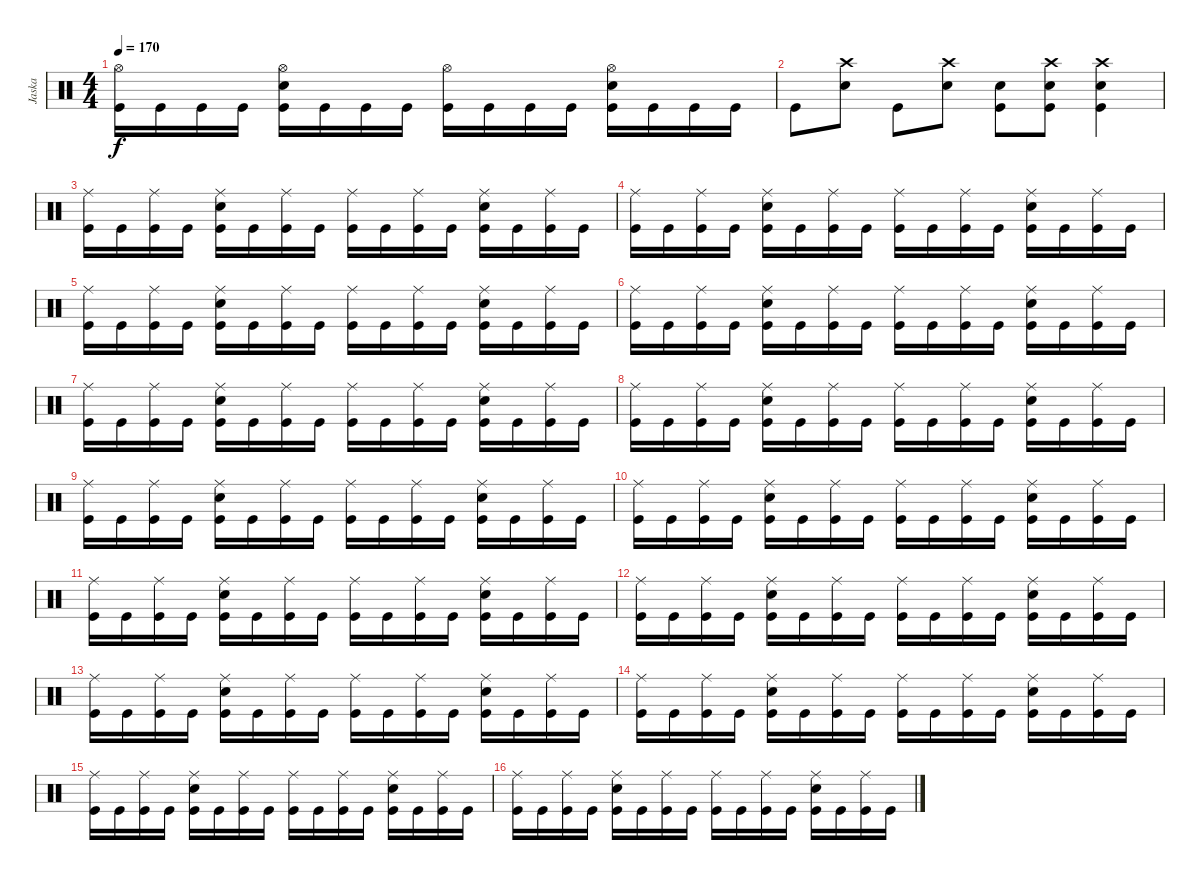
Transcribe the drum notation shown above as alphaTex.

\track ("Jaska" "Jaska") {instrument percussion}
\staff {score}
\articulation defaults
\ts (4 4)
\tempo 170
\clef neutral
\ks c
("Hi-Hat (open)" "Kick (hit)").16{dy f} "Kick (hit)".16 "Kick (hit)".16 "Kick (hit)".16 ("Hi-Hat (open)" "Snare (hit) 2" "Kick (hit)").16 "Kick (hit)".16 "Kick (hit)".16 "Kick (hit)".16 ("Hi-Hat (open)" "Kick (hit)").16 "Kick (hit)".16 "Kick (hit)".16 "Kick (hit)".16 ("Hi-Hat (open)" "Snare (hit) 2" "Kick (hit)").16 "Kick (hit)".16 "Kick (hit)".16 "Kick (hit)".16 |
"Kick (hit)".8 ("Crash high (hit)" "Snare (hit) 2").8 "Kick (hit)".8 ("Crash high (hit)" "Snare (hit) 2").8 ("Snare (hit)" "Kick (hit)").8 ("Crash high (hit)" "Snare (hit) 2" "Kick (hit)").8 ("Crash high (hit)" "Snare (hit) 2" "Kick (hit)").4 |
("Ride (middle)" "Kick (hit)").16 "Kick (hit)".16 ("Ride (middle)" "Kick (hit)").16 "Kick (hit)".16 ("Ride (middle)" "Snare (hit) 2" "Kick (hit)").16 "Kick (hit)".16 ("Ride (middle)" "Kick (hit)").16 "Kick (hit)".16 ("Ride (middle)" "Kick (hit)").16 "Kick (hit)".16 ("Ride (middle)" "Kick (hit)").16 "Kick (hit)".16 ("Ride (middle)" "Snare (hit) 2" "Kick (hit)").16 "Kick (hit)".16 ("Ride (middle)" "Kick (hit)").16 "Kick (hit)".16 |
("Ride (middle)" "Kick (hit)").16 "Kick (hit)".16 ("Ride (middle)" "Kick (hit)").16 "Kick (hit)".16 ("Ride (middle)" "Snare (hit) 2" "Kick (hit)").16 "Kick (hit)".16 ("Ride (middle)" "Kick (hit)").16 "Kick (hit)".16 ("Ride (middle)" "Kick (hit)").16 "Kick (hit)".16 ("Ride (middle)" "Kick (hit)").16 "Kick (hit)".16 ("Ride (middle)" "Snare (hit) 2" "Kick (hit)").16 "Kick (hit)".16 ("Ride (middle)" "Kick (hit)").16 "Kick (hit)".16 |
("Ride (middle)" "Kick (hit)").16 "Kick (hit)".16 ("Ride (middle)" "Kick (hit)").16 "Kick (hit)".16 ("Ride (middle)" "Snare (hit) 2" "Kick (hit)").16 "Kick (hit)".16 ("Ride (middle)" "Kick (hit)").16 "Kick (hit)".16 ("Ride (middle)" "Kick (hit)").16 "Kick (hit)".16 ("Ride (middle)" "Kick (hit)").16 "Kick (hit)".16 ("Ride (middle)" "Snare (hit) 2" "Kick (hit)").16 "Kick (hit)".16 ("Ride (middle)" "Kick (hit)").16 "Kick (hit)".16 |
("Ride (middle)" "Kick (hit)").16 "Kick (hit)".16 ("Ride (middle)" "Kick (hit)").16 "Kick (hit)".16 ("Ride (middle)" "Snare (hit) 2" "Kick (hit)").16 "Kick (hit)".16 ("Ride (middle)" "Kick (hit)").16 "Kick (hit)".16 ("Ride (middle)" "Kick (hit)").16 "Kick (hit)".16 ("Ride (middle)" "Kick (hit)").16 "Kick (hit)".16 ("Ride (middle)" "Snare (hit) 2" "Kick (hit)").16 "Kick (hit)".16 ("Ride (middle)" "Kick (hit)").16 "Kick (hit)".16 |
("Ride (middle)" "Kick (hit)").16 "Kick (hit)".16 ("Ride (middle)" "Kick (hit)").16 "Kick (hit)".16 ("Ride (middle)" "Snare (hit) 2" "Kick (hit)").16 "Kick (hit)".16 ("Ride (middle)" "Kick (hit)").16 "Kick (hit)".16 ("Ride (middle)" "Kick (hit)").16 "Kick (hit)".16 ("Ride (middle)" "Kick (hit)").16 "Kick (hit)".16 ("Ride (middle)" "Snare (hit) 2" "Kick (hit)").16 "Kick (hit)".16 ("Ride (middle)" "Kick (hit)").16 "Kick (hit)".16 |
("Ride (middle)" "Kick (hit)").16 "Kick (hit)".16 ("Ride (middle)" "Kick (hit)").16 "Kick (hit)".16 ("Ride (middle)" "Snare (hit) 2" "Kick (hit)").16 "Kick (hit)".16 ("Ride (middle)" "Kick (hit)").16 "Kick (hit)".16 ("Ride (middle)" "Kick (hit)").16 "Kick (hit)".16 ("Ride (middle)" "Kick (hit)").16 "Kick (hit)".16 ("Ride (middle)" "Snare (hit) 2" "Kick (hit)").16 "Kick (hit)".16 ("Ride (middle)" "Kick (hit)").16 "Kick (hit)".16 |
("Ride (middle)" "Kick (hit)").16 "Kick (hit)".16 ("Ride (middle)" "Kick (hit)").16 "Kick (hit)".16 ("Ride (middle)" "Snare (hit) 2" "Kick (hit)").16 "Kick (hit)".16 ("Ride (middle)" "Kick (hit)").16 "Kick (hit)".16 ("Ride (middle)" "Kick (hit)").16 "Kick (hit)".16 ("Ride (middle)" "Kick (hit)").16 "Kick (hit)".16 ("Ride (middle)" "Snare (hit) 2" "Kick (hit)").16 "Kick (hit)".16 ("Ride (middle)" "Kick (hit)").16 "Kick (hit)".16 |
("Ride (middle)" "Kick (hit)").16 "Kick (hit)".16 ("Ride (middle)" "Kick (hit)").16 "Kick (hit)".16 ("Ride (middle)" "Snare (hit) 2" "Kick (hit)").16 "Kick (hit)".16 ("Ride (middle)" "Kick (hit)").16 "Kick (hit)".16 ("Ride (middle)" "Kick (hit)").16 "Kick (hit)".16 ("Ride (middle)" "Kick (hit)").16 "Kick (hit)".16 ("Ride (middle)" "Snare (hit) 2" "Kick (hit)").16 "Kick (hit)".16 ("Ride (middle)" "Kick (hit)").16 "Kick (hit)".16 |
("Ride (middle)" "Kick (hit)").16 "Kick (hit)".16 ("Ride (middle)" "Kick (hit)").16 "Kick (hit)".16 ("Ride (middle)" "Snare (hit) 2" "Kick (hit)").16 "Kick (hit)".16 ("Ride (middle)" "Kick (hit)").16 "Kick (hit)".16 ("Ride (middle)" "Kick (hit)").16 "Kick (hit)".16 ("Ride (middle)" "Kick (hit)").16 "Kick (hit)".16 ("Ride (middle)" "Snare (hit) 2" "Kick (hit)").16 "Kick (hit)".16 ("Ride (middle)" "Kick (hit)").16 "Kick (hit)".16 |
("Ride (middle)" "Kick (hit)").16 "Kick (hit)".16 ("Ride (middle)" "Kick (hit)").16 "Kick (hit)".16 ("Ride (middle)" "Snare (hit) 2" "Kick (hit)").16 "Kick (hit)".16 ("Ride (middle)" "Kick (hit)").16 "Kick (hit)".16 ("Ride (middle)" "Kick (hit)").16 "Kick (hit)".16 ("Ride (middle)" "Kick (hit)").16 "Kick (hit)".16 ("Ride (middle)" "Snare (hit) 2" "Kick (hit)").16 "Kick (hit)".16 ("Ride (middle)" "Kick (hit)").16 "Kick (hit)".16 |
("Ride (middle)" "Kick (hit)").16 "Kick (hit)".16 ("Ride (middle)" "Kick (hit)").16 "Kick (hit)".16 ("Ride (middle)" "Snare (hit) 2" "Kick (hit)").16 "Kick (hit)".16 ("Ride (middle)" "Kick (hit)").16 "Kick (hit)".16 ("Ride (middle)" "Kick (hit)").16 "Kick (hit)".16 ("Ride (middle)" "Kick (hit)").16 "Kick (hit)".16 ("Ride (middle)" "Snare (hit) 2" "Kick (hit)").16 "Kick (hit)".16 ("Ride (middle)" "Kick (hit)").16 "Kick (hit)".16 |
("Ride (middle)" "Kick (hit)").16 "Kick (hit)".16 ("Ride (middle)" "Kick (hit)").16 "Kick (hit)".16 ("Ride (middle)" "Snare (hit) 2" "Kick (hit)").16 "Kick (hit)".16 ("Ride (middle)" "Kick (hit)").16 "Kick (hit)".16 ("Ride (middle)" "Kick (hit)").16 "Kick (hit)".16 ("Ride (middle)" "Kick (hit)").16 "Kick (hit)".16 ("Ride (middle)" "Snare (hit) 2" "Kick (hit)").16 "Kick (hit)".16 ("Ride (middle)" "Kick (hit)").16 "Kick (hit)".16 |
("Ride (middle)" "Kick (hit)").16 "Kick (hit)".16 ("Ride (middle)" "Kick (hit)").16 "Kick (hit)".16 ("Ride (middle)" "Snare (hit) 2" "Kick (hit)").16 "Kick (hit)".16 ("Ride (middle)" "Kick (hit)").16 "Kick (hit)".16 ("Ride (middle)" "Kick (hit)").16 "Kick (hit)".16 ("Ride (middle)" "Kick (hit)").16 "Kick (hit)".16 ("Ride (middle)" "Snare (hit) 2" "Kick (hit)").16 "Kick (hit)".16 ("Ride (middle)" "Kick (hit)").16 "Kick (hit)".16 |
("Ride (middle)" "Kick (hit)").16 "Kick (hit)".16 ("Ride (middle)" "Kick (hit)").16 "Kick (hit)".16 ("Ride (middle)" "Snare (hit) 2" "Kick (hit)").16 "Kick (hit)".16 ("Ride (middle)" "Kick (hit)").16 "Kick (hit)".16 ("Ride (middle)" "Kick (hit)").16 "Kick (hit)".16 ("Ride (middle)" "Kick (hit)").16 "Kick (hit)".16 ("Ride (middle)" "Snare (hit) 2" "Kick (hit)").16 "Kick (hit)".16 ("Ride (middle)" "Kick (hit)").16 "Kick (hit)".16
